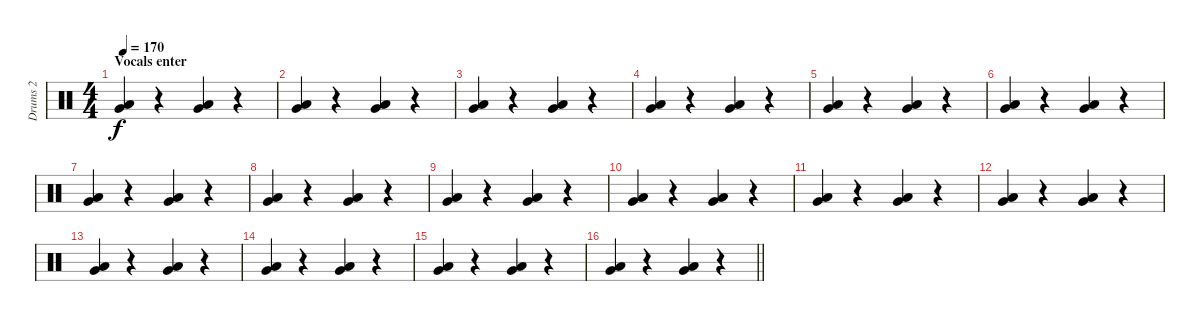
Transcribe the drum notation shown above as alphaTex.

\track ("Drums 2" "Drums 2") {instrument percussion}
\staff {score}
\articulation defaults
\ts (4 4)
\section ("" "Vocals enter")
\tempo 170
\clef neutral
\ks c
("Very Low Tom (hit)" "Low Tom (hit)").4{dy f} r.4 ("Very Low Tom (hit)" "Low Tom (hit)").4 r.4 |
("Very Low Tom (hit)" "Low Tom (hit)").4 r.4 ("Very Low Tom (hit)" "Low Tom (hit)").4 r.4 |
("Very Low Tom (hit)" "Low Tom (hit)").4 r.4 ("Very Low Tom (hit)" "Low Tom (hit)").4 r.4 |
("Very Low Tom (hit)" "Low Tom (hit)").4 r.4 ("Very Low Tom (hit)" "Low Tom (hit)").4 r.4 |
("Very Low Tom (hit)" "Low Tom (hit)").4 r.4 ("Very Low Tom (hit)" "Low Tom (hit)").4 r.4 |
("Very Low Tom (hit)" "Low Tom (hit)").4 r.4 ("Very Low Tom (hit)" "Low Tom (hit)").4 r.4 |
("Very Low Tom (hit)" "Low Tom (hit)").4 r.4 ("Very Low Tom (hit)" "Low Tom (hit)").4 r.4 |
("Very Low Tom (hit)" "Low Tom (hit)").4 r.4 ("Very Low Tom (hit)" "Low Tom (hit)").4 r.4 |
("Very Low Tom (hit)" "Low Tom (hit)").4 r.4 ("Very Low Tom (hit)" "Low Tom (hit)").4 r.4 |
("Very Low Tom (hit)" "Low Tom (hit)").4 r.4 ("Very Low Tom (hit)" "Low Tom (hit)").4 r.4 |
("Very Low Tom (hit)" "Low Tom (hit)").4 r.4 ("Very Low Tom (hit)" "Low Tom (hit)").4 r.4 |
("Very Low Tom (hit)" "Low Tom (hit)").4 r.4 ("Very Low Tom (hit)" "Low Tom (hit)").4 r.4 |
("Very Low Tom (hit)" "Low Tom (hit)").4 r.4 ("Very Low Tom (hit)" "Low Tom (hit)").4 r.4 |
("Very Low Tom (hit)" "Low Tom (hit)").4 r.4 ("Very Low Tom (hit)" "Low Tom (hit)").4 r.4 |
("Very Low Tom (hit)" "Low Tom (hit)").4 r.4 ("Very Low Tom (hit)" "Low Tom (hit)").4 r.4 |
\barLineRight lightlight
("Very Low Tom (hit)" "Low Tom (hit)").4 r.4 ("Very Low Tom (hit)" "Low Tom (hit)").4 r.4
